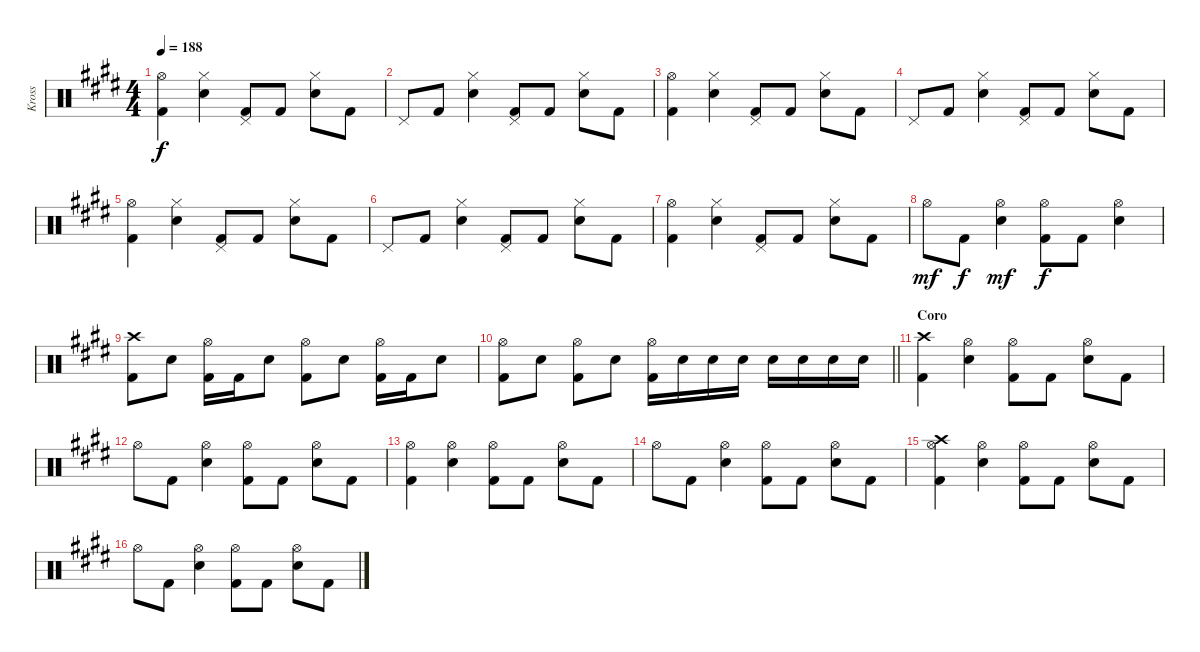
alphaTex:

\track ("Kross" "Kross") {instrument percussion}
\staff {score}
\articulation defaults
\ts (4 4)
\tempo 188
\clef neutral
\ks e
("Hi-Hat (open)" "Kick (hit) 2").4{dy f} ("Hi-Hat (closed)" "Electric Snare (hit)").4 ("Pedal Hi-Hat (hit)" "Kick (hit) 2").8 "Kick (hit) 2".8 ("Hi-Hat (closed)" "Electric Snare (hit)").8 "Kick (hit) 2".8 |
"Pedal Hi-Hat (hit)".8 "Kick (hit) 2".8 ("Hi-Hat (closed)" "Electric Snare (hit)").4 ("Pedal Hi-Hat (hit)" "Kick (hit) 2").8 "Kick (hit) 2".8 ("Hi-Hat (closed)" "Electric Snare (hit)").8 "Kick (hit) 2".8 |
("Hi-Hat (open)" "Kick (hit) 2").4 ("Hi-Hat (closed)" "Electric Snare (hit)").4 ("Pedal Hi-Hat (hit)" "Kick (hit) 2").8 "Kick (hit) 2".8 ("Hi-Hat (closed)" "Electric Snare (hit)").8 "Kick (hit) 2".8 |
"Pedal Hi-Hat (hit)".8 "Kick (hit) 2".8 ("Hi-Hat (closed)" "Electric Snare (hit)").4 ("Pedal Hi-Hat (hit)" "Kick (hit) 2").8 "Kick (hit) 2".8 ("Hi-Hat (closed)" "Electric Snare (hit)").8 "Kick (hit) 2".8 |
("Hi-Hat (open)" "Kick (hit) 2").4 ("Hi-Hat (closed)" "Electric Snare (hit)").4 ("Pedal Hi-Hat (hit)" "Kick (hit) 2").8 "Kick (hit) 2".8 ("Hi-Hat (closed)" "Electric Snare (hit)").8 "Kick (hit) 2".8 |
"Pedal Hi-Hat (hit)".8 "Kick (hit) 2".8 ("Hi-Hat (closed)" "Electric Snare (hit)").4 ("Pedal Hi-Hat (hit)" "Kick (hit) 2").8 "Kick (hit) 2".8 ("Hi-Hat (closed)" "Electric Snare (hit)").8 "Kick (hit) 2".8 |
("Hi-Hat (open)" "Kick (hit) 2").4 ("Hi-Hat (closed)" "Electric Snare (hit)").4 ("Pedal Hi-Hat (hit)" "Kick (hit) 2").8 "Kick (hit) 2".8 ("Hi-Hat (closed)" "Electric Snare (hit)").8 "Kick (hit) 2".8 |
"Hi-Hat (open)".8{dy mf} "Kick (hit) 2".8{dy f} ("Hi-Hat (open)" "Electric Snare (hit)").4{dy mf} ("Hi-Hat (open)" "Kick (hit) 2").8{dy f} "Kick (hit) 2".8 ("Hi-Hat (open)" "Electric Snare (hit)").4 |
("Crash high (hit)" "Kick (hit) 2").8 "Electric Snare (hit)".8 ("Hi-Hat (open)" "Kick (hit) 2").16 "Kick (hit) 2".16 "Electric Snare (hit)".8 ("Hi-Hat (open)" "Kick (hit) 2").8 "Electric Snare (hit)".8 ("Hi-Hat (open)" "Kick (hit) 2").16 "Kick (hit) 2".16 "Electric Snare (hit)".8 |
\barLineRight lightlight
("Hi-Hat (open)" "Kick (hit) 2").8 "Electric Snare (hit)".8 ("Hi-Hat (open)" "Kick (hit) 2").8 "Electric Snare (hit)".8 ("Hi-Hat (open)" "Kick (hit) 2").16 "Electric Snare (hit)".16 "Electric Snare (hit)".16 "Electric Snare (hit)".16 "Electric Snare (hit)".16 "Electric Snare (hit)".16 "Electric Snare (hit)".16 "Electric Snare (hit)".16 |
\section ("" "Coro")
("Crash high (hit)" "Kick (hit) 2").4 ("Hi-Hat (open)" "Electric Snare (hit)").4 ("Hi-Hat (open)" "Kick (hit) 2").8 "Kick (hit) 2".8 ("Hi-Hat (open)" "Electric Snare (hit)").8 "Kick (hit) 2".8 |
"Hi-Hat (open)".8 "Kick (hit) 2".8 ("Hi-Hat (open)" "Electric Snare (hit)").4 ("Hi-Hat (open)" "Kick (hit) 2").8 "Kick (hit) 2".8 ("Hi-Hat (open)" "Electric Snare (hit)").8 "Kick (hit) 2".8 |
("Hi-Hat (open)" "Kick (hit) 2").4 ("Hi-Hat (open)" "Electric Snare (hit)").4 ("Hi-Hat (open)" "Kick (hit) 2").8 "Kick (hit) 2".8 ("Hi-Hat (open)" "Electric Snare (hit)").8 "Kick (hit) 2".8 |
"Hi-Hat (open)".8 "Kick (hit) 2".8 ("Hi-Hat (open)" "Electric Snare (hit)").4 ("Hi-Hat (open)" "Kick (hit) 2").8 "Kick (hit) 2".8 ("Hi-Hat (open)" "Electric Snare (hit)").8 "Kick (hit) 2".8 |
("Crash high (hit)" "Hi-Hat (open)" "Kick (hit) 2").4 ("Hi-Hat (open)" "Electric Snare (hit)").4 ("Hi-Hat (open)" "Kick (hit) 2").8 "Kick (hit) 2".8 ("Hi-Hat (open)" "Electric Snare (hit)").8 "Kick (hit) 2".8 |
"Hi-Hat (open)".8 "Kick (hit) 2".8 ("Hi-Hat (open)" "Electric Snare (hit)").4 ("Hi-Hat (open)" "Kick (hit) 2").8 "Kick (hit) 2".8 ("Hi-Hat (open)" "Electric Snare (hit)").8 "Kick (hit) 2".8
